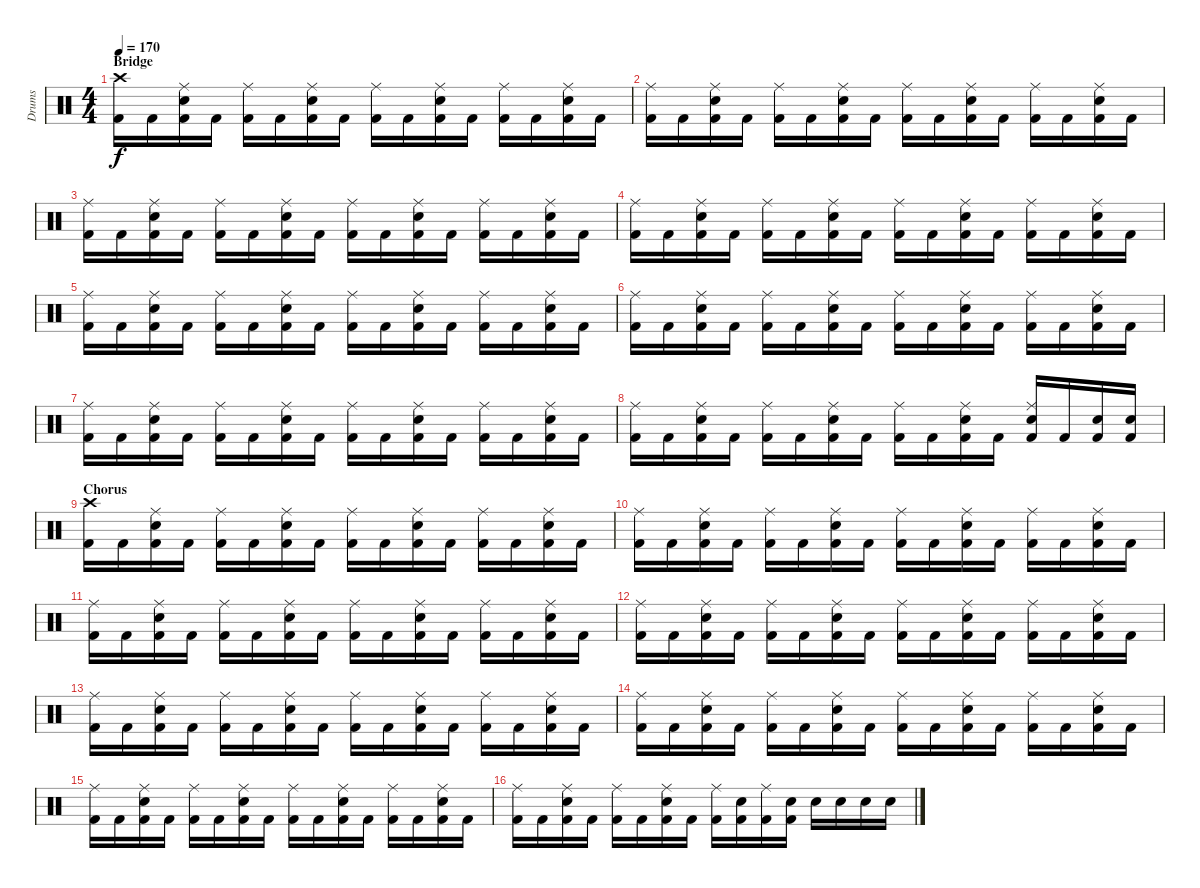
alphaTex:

\track ("Drums" "Drums") {instrument percussion}
\staff {score}
\articulation defaults
\ts (4 4)
\section ("" "Bridge")
\tempo 170
\clef neutral
\ks c
("Crash high (hit)" "Kick (hit) 2").16{dy f} "Kick (hit) 2".16 ("Ride (middle)" "Electric Snare (hit)" "Kick (hit) 2").16 "Kick (hit) 2".16 ("Ride (middle)" "Kick (hit) 2").16 "Kick (hit) 2".16 ("Ride (middle)" "Electric Snare (hit)" "Kick (hit) 2").16 "Kick (hit) 2".16 ("Ride (middle)" "Kick (hit) 2").16 "Kick (hit) 2".16 ("Ride (middle)" "Electric Snare (hit)" "Kick (hit) 2").16 "Kick (hit) 2".16 ("Ride (middle)" "Kick (hit) 2").16 "Kick (hit) 2".16 ("Ride (middle)" "Electric Snare (hit)" "Kick (hit) 2").16 "Kick (hit) 2".16 |
("Ride (middle)" "Kick (hit) 2").16 "Kick (hit) 2".16 ("Ride (middle)" "Electric Snare (hit)" "Kick (hit) 2").16 "Kick (hit) 2".16 ("Ride (middle)" "Kick (hit) 2").16 "Kick (hit) 2".16 ("Ride (middle)" "Electric Snare (hit)" "Kick (hit) 2").16 "Kick (hit) 2".16 ("Ride (middle)" "Kick (hit) 2").16 "Kick (hit) 2".16 ("Ride (middle)" "Electric Snare (hit)" "Kick (hit) 2").16 "Kick (hit) 2".16 ("Ride (middle)" "Kick (hit) 2").16 "Kick (hit) 2".16 ("Ride (middle)" "Electric Snare (hit)" "Kick (hit) 2").16 "Kick (hit) 2".16 |
("Ride (middle)" "Kick (hit) 2").16 "Kick (hit) 2".16 ("Ride (middle)" "Electric Snare (hit)" "Kick (hit) 2").16 "Kick (hit) 2".16 ("Ride (middle)" "Kick (hit) 2").16 "Kick (hit) 2".16 ("Ride (middle)" "Electric Snare (hit)" "Kick (hit) 2").16 "Kick (hit) 2".16 ("Ride (middle)" "Kick (hit) 2").16 "Kick (hit) 2".16 ("Ride (middle)" "Electric Snare (hit)" "Kick (hit) 2").16 "Kick (hit) 2".16 ("Ride (middle)" "Kick (hit) 2").16 "Kick (hit) 2".16 ("Ride (middle)" "Electric Snare (hit)" "Kick (hit) 2").16 "Kick (hit) 2".16 |
("Ride (middle)" "Kick (hit) 2").16 "Kick (hit) 2".16 ("Ride (middle)" "Electric Snare (hit)" "Kick (hit) 2").16 "Kick (hit) 2".16 ("Ride (middle)" "Kick (hit) 2").16 "Kick (hit) 2".16 ("Ride (middle)" "Electric Snare (hit)" "Kick (hit) 2").16 "Kick (hit) 2".16 ("Ride (middle)" "Kick (hit) 2").16 "Kick (hit) 2".16 ("Ride (middle)" "Electric Snare (hit)" "Kick (hit) 2").16 "Kick (hit) 2".16 ("Ride (middle)" "Kick (hit) 2").16 "Kick (hit) 2".16 ("Ride (middle)" "Electric Snare (hit)" "Kick (hit) 2").16 "Kick (hit) 2".16 |
("Ride (middle)" "Kick (hit) 2").16 "Kick (hit) 2".16 ("Ride (middle)" "Electric Snare (hit)" "Kick (hit) 2").16 "Kick (hit) 2".16 ("Ride (middle)" "Kick (hit) 2").16 "Kick (hit) 2".16 ("Ride (middle)" "Electric Snare (hit)" "Kick (hit) 2").16 "Kick (hit) 2".16 ("Ride (middle)" "Kick (hit) 2").16 "Kick (hit) 2".16 ("Ride (middle)" "Electric Snare (hit)" "Kick (hit) 2").16 "Kick (hit) 2".16 ("Ride (middle)" "Kick (hit) 2").16 "Kick (hit) 2".16 ("Ride (middle)" "Electric Snare (hit)" "Kick (hit) 2").16 "Kick (hit) 2".16 |
("Ride (middle)" "Kick (hit) 2").16 "Kick (hit) 2".16 ("Ride (middle)" "Electric Snare (hit)" "Kick (hit) 2").16 "Kick (hit) 2".16 ("Ride (middle)" "Kick (hit) 2").16 "Kick (hit) 2".16 ("Ride (middle)" "Electric Snare (hit)" "Kick (hit) 2").16 "Kick (hit) 2".16 ("Ride (middle)" "Kick (hit) 2").16 "Kick (hit) 2".16 ("Ride (middle)" "Electric Snare (hit)" "Kick (hit) 2").16 "Kick (hit) 2".16 ("Ride (middle)" "Kick (hit) 2").16 "Kick (hit) 2".16 ("Ride (middle)" "Electric Snare (hit)" "Kick (hit) 2").16 "Kick (hit) 2".16 |
("Ride (middle)" "Kick (hit) 2").16 "Kick (hit) 2".16 ("Ride (middle)" "Electric Snare (hit)" "Kick (hit) 2").16 "Kick (hit) 2".16 ("Ride (middle)" "Kick (hit) 2").16 "Kick (hit) 2".16 ("Ride (middle)" "Electric Snare (hit)" "Kick (hit) 2").16 "Kick (hit) 2".16 ("Ride (middle)" "Kick (hit) 2").16 "Kick (hit) 2".16 ("Ride (middle)" "Electric Snare (hit)" "Kick (hit) 2").16 "Kick (hit) 2".16 ("Ride (middle)" "Kick (hit) 2").16 "Kick (hit) 2".16 ("Ride (middle)" "Electric Snare (hit)" "Kick (hit) 2").16 "Kick (hit) 2".16 |
("Ride (middle)" "Kick (hit) 2").16 "Kick (hit) 2".16 ("Ride (middle)" "Electric Snare (hit)" "Kick (hit) 2").16 "Kick (hit) 2".16 ("Ride (middle)" "Kick (hit) 2").16 "Kick (hit) 2".16 ("Ride (middle)" "Electric Snare (hit)" "Kick (hit) 2").16 "Kick (hit) 2".16 ("Ride (middle)" "Kick (hit) 2").16 "Kick (hit) 2".16 ("Ride (middle)" "Electric Snare (hit)" "Kick (hit) 2").16 "Kick (hit) 2".16 ("Ride (middle)" "Electric Snare (hit)" "Kick (hit) 2").16 "Kick (hit) 2".16 ("Electric Snare (hit)" "Kick (hit) 2").16 ("Electric Snare (hit)" "Kick (hit) 2").16 |
\section ("" "Chorus")
("Crash high (hit)" "Kick (hit) 2").16 "Kick (hit) 2".16 ("Ride (middle)" "Electric Snare (hit)" "Kick (hit) 2").16 "Kick (hit) 2".16 ("Ride (middle)" "Kick (hit) 2").16 "Kick (hit) 2".16 ("Ride (middle)" "Electric Snare (hit)" "Kick (hit) 2").16 "Kick (hit) 2".16 ("Ride (middle)" "Kick (hit) 2").16 "Kick (hit) 2".16 ("Ride (middle)" "Electric Snare (hit)" "Kick (hit) 2").16 "Kick (hit) 2".16 ("Ride (middle)" "Kick (hit) 2").16 "Kick (hit) 2".16 ("Ride (middle)" "Electric Snare (hit)" "Kick (hit) 2").16 "Kick (hit) 2".16 |
("Ride (middle)" "Kick (hit) 2").16 "Kick (hit) 2".16 ("Ride (middle)" "Electric Snare (hit)" "Kick (hit) 2").16 "Kick (hit) 2".16 ("Ride (middle)" "Kick (hit) 2").16 "Kick (hit) 2".16 ("Ride (middle)" "Electric Snare (hit)" "Kick (hit) 2").16 "Kick (hit) 2".16 ("Ride (middle)" "Kick (hit) 2").16 "Kick (hit) 2".16 ("Ride (middle)" "Electric Snare (hit)" "Kick (hit) 2").16 "Kick (hit) 2".16 ("Ride (middle)" "Kick (hit) 2").16 "Kick (hit) 2".16 ("Ride (middle)" "Electric Snare (hit)" "Kick (hit) 2").16 "Kick (hit) 2".16 |
("Ride (middle)" "Kick (hit) 2").16 "Kick (hit) 2".16 ("Ride (middle)" "Electric Snare (hit)" "Kick (hit) 2").16 "Kick (hit) 2".16 ("Ride (middle)" "Kick (hit) 2").16 "Kick (hit) 2".16 ("Ride (middle)" "Electric Snare (hit)" "Kick (hit) 2").16 "Kick (hit) 2".16 ("Ride (middle)" "Kick (hit) 2").16 "Kick (hit) 2".16 ("Ride (middle)" "Electric Snare (hit)" "Kick (hit) 2").16 "Kick (hit) 2".16 ("Ride (middle)" "Kick (hit) 2").16 "Kick (hit) 2".16 ("Ride (middle)" "Electric Snare (hit)" "Kick (hit) 2").16 "Kick (hit) 2".16 |
("Ride (middle)" "Kick (hit) 2").16 "Kick (hit) 2".16 ("Ride (middle)" "Electric Snare (hit)" "Kick (hit) 2").16 "Kick (hit) 2".16 ("Ride (middle)" "Kick (hit) 2").16 "Kick (hit) 2".16 ("Ride (middle)" "Electric Snare (hit)" "Kick (hit) 2").16 "Kick (hit) 2".16 ("Ride (middle)" "Kick (hit) 2").16 "Kick (hit) 2".16 ("Ride (middle)" "Electric Snare (hit)" "Kick (hit) 2").16 "Kick (hit) 2".16 ("Ride (middle)" "Kick (hit) 2").16 "Kick (hit) 2".16 ("Ride (middle)" "Electric Snare (hit)" "Kick (hit) 2").16 "Kick (hit) 2".16 |
("Ride (middle)" "Kick (hit) 2").16 "Kick (hit) 2".16 ("Ride (middle)" "Electric Snare (hit)" "Kick (hit) 2").16 "Kick (hit) 2".16 ("Ride (middle)" "Kick (hit) 2").16 "Kick (hit) 2".16 ("Ride (middle)" "Electric Snare (hit)" "Kick (hit) 2").16 "Kick (hit) 2".16 ("Ride (middle)" "Kick (hit) 2").16 "Kick (hit) 2".16 ("Ride (middle)" "Electric Snare (hit)" "Kick (hit) 2").16 "Kick (hit) 2".16 ("Ride (middle)" "Kick (hit) 2").16 "Kick (hit) 2".16 ("Ride (middle)" "Electric Snare (hit)" "Kick (hit) 2").16 "Kick (hit) 2".16 |
("Ride (middle)" "Kick (hit) 2").16 "Kick (hit) 2".16 ("Ride (middle)" "Electric Snare (hit)" "Kick (hit) 2").16 "Kick (hit) 2".16 ("Ride (middle)" "Kick (hit) 2").16 "Kick (hit) 2".16 ("Ride (middle)" "Electric Snare (hit)" "Kick (hit) 2").16 "Kick (hit) 2".16 ("Ride (middle)" "Kick (hit) 2").16 "Kick (hit) 2".16 ("Ride (middle)" "Electric Snare (hit)" "Kick (hit) 2").16 "Kick (hit) 2".16 ("Ride (middle)" "Kick (hit) 2").16 "Kick (hit) 2".16 ("Ride (middle)" "Electric Snare (hit)" "Kick (hit) 2").16 "Kick (hit) 2".16 |
("Ride (middle)" "Kick (hit) 2").16 "Kick (hit) 2".16 ("Ride (middle)" "Electric Snare (hit)" "Kick (hit) 2").16 "Kick (hit) 2".16 ("Ride (middle)" "Kick (hit) 2").16 "Kick (hit) 2".16 ("Ride (middle)" "Electric Snare (hit)" "Kick (hit) 2").16 "Kick (hit) 2".16 ("Ride (middle)" "Kick (hit) 2").16 "Kick (hit) 2".16 ("Ride (middle)" "Electric Snare (hit)" "Kick (hit) 2").16 "Kick (hit) 2".16 ("Ride (middle)" "Kick (hit) 2").16 "Kick (hit) 2".16 ("Ride (middle)" "Electric Snare (hit)" "Kick (hit) 2").16 "Kick (hit) 2".16 |
("Ride (middle)" "Kick (hit) 2").16 "Kick (hit) 2".16 ("Ride (middle)" "Electric Snare (hit)" "Kick (hit) 2").16 "Kick (hit) 2".16 ("Ride (middle)" "Kick (hit) 2").16 "Kick (hit) 2".16 ("Ride (middle)" "Electric Snare (hit)" "Kick (hit) 2").16 "Kick (hit) 2".16 ("Ride (middle)" "Kick (hit) 2").16 ("Electric Snare (hit)" "Kick (hit) 2").16 ("Ride (middle)" "Kick (hit) 2").16 ("Electric Snare (hit)" "Kick (hit) 2").16 "Electric Snare (hit)".16 "Electric Snare (hit)".16 "Electric Snare (hit)".16 "Electric Snare (hit)".16
